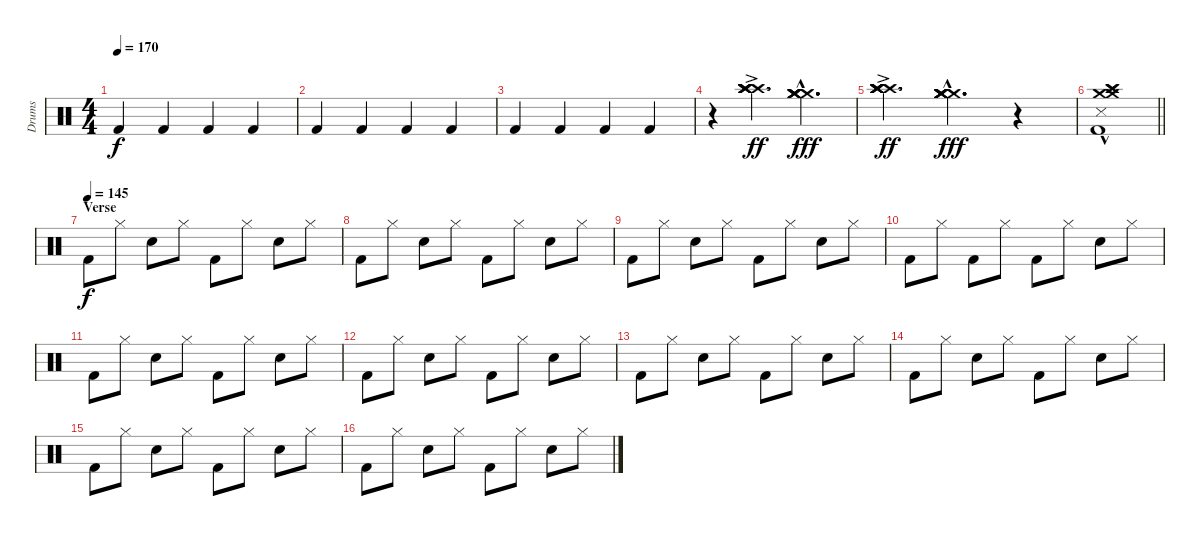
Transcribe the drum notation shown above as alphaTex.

\track ("Drums" "Drums") {instrument percussion}
\staff {score}
\articulation defaults
\ts (4 4)
\tempo 170
\clef neutral
\ks c "Kick (hit) 2".4{dy f} "Kick (hit) 2".4 "Kick (hit) 2".4 "Kick (hit) 2".4
|
"Kick (hit) 2".4 "Kick (hit) 2".4 "Kick (hit) 2".4 "Kick (hit) 2".4 |
"Kick (hit) 2".4 "Kick (hit) 2".4 "Kick (hit) 2".4 "Kick (hit) 2".4 |
r.4 ("Crash high (hit)"{ac} "Crash high (hit)"{ac} "Crash high (hit)"{ac} "Crash high (hit)"{ac} "Crash high (hit)"{ac} "Crash high (hit)"{ac}).4{d dy ff} ("Crash medium (hit)"{hac} "Crash medium (hit)"{hac} "Crash medium (hit)"{hac} "Crash medium (hit)"{hac} "Crash medium (hit)"{hac} "Crash medium (hit)"{hac}).4{d dy fff} |
("Crash high (hit)"{ac} "Crash high (hit)"{ac} "Crash high (hit)"{ac} "Crash high (hit)"{ac} "Crash high (hit)"{ac} "Crash high (hit)"{ac}).4{d dy ff} ("Crash medium (hit)"{hac} "Crash medium (hit)"{hac} "Crash medium (hit)"{hac} "Crash medium (hit)"{hac} "Crash medium (hit)"{hac} "Crash medium (hit)"{hac}).4{d dy fff} r.4 |
\barLineRight lightlight
("Crash high (hit)"{hac} "Crash medium (hit)"{hac} "Kick (hit) 2"{hac} "Crash high (hit)"{hac} "Crash medium (hit)"{hac} "Snare (side stick) 3"{hac}).1 |
\section ("" "Verse")
\tempo (145)
"Kick (hit) 2".8{dy f} "Hi-Hat (closed)".8 "Electric Snare (hit)".8 "Hi-Hat (closed)".8 "Kick (hit) 2".8 "Hi-Hat (closed)".8 "Electric Snare (hit)".8 "Hi-Hat (closed)".8 |
"Kick (hit) 2".8 "Hi-Hat (closed)".8 "Electric Snare (hit)".8 "Hi-Hat (closed)".8 "Kick (hit) 2".8 "Hi-Hat (closed)".8 "Electric Snare (hit)".8 "Hi-Hat (closed)".8 |
"Kick (hit) 2".8 "Hi-Hat (closed)".8 "Electric Snare (hit)".8 "Hi-Hat (closed)".8 "Kick (hit) 2".8 "Hi-Hat (closed)".8 "Electric Snare (hit)".8 "Hi-Hat (closed)".8 |
"Kick (hit) 2".8 "Hi-Hat (closed)".8 "Kick (hit) 2".8 "Hi-Hat (closed)".8 "Kick (hit) 2".8 "Hi-Hat (closed)".8 "Electric Snare (hit)".8 "Hi-Hat (closed)".8 |
"Kick (hit) 2".8 "Hi-Hat (closed)".8 "Electric Snare (hit)".8 "Hi-Hat (closed)".8 "Kick (hit) 2".8 "Hi-Hat (closed)".8 "Electric Snare (hit)".8 "Hi-Hat (closed)".8 |
"Kick (hit) 2".8 "Hi-Hat (closed)".8 "Electric Snare (hit)".8 "Hi-Hat (closed)".8 "Kick (hit) 2".8 "Hi-Hat (closed)".8 "Electric Snare (hit)".8 "Hi-Hat (closed)".8 |
"Kick (hit) 2".8 "Hi-Hat (closed)".8 "Electric Snare (hit)".8 "Hi-Hat (closed)".8 "Kick (hit) 2".8 "Hi-Hat (closed)".8 "Electric Snare (hit)".8 "Hi-Hat (closed)".8 |
"Kick (hit) 2".8 "Hi-Hat (closed)".8 "Electric Snare (hit)".8 "Hi-Hat (closed)".8 "Kick (hit) 2".8 "Hi-Hat (closed)".8 "Electric Snare (hit)".8 "Hi-Hat (closed)".8 |
"Kick (hit) 2".8 "Hi-Hat (closed)".8 "Electric Snare (hit)".8 "Hi-Hat (closed)".8 "Kick (hit) 2".8 "Hi-Hat (closed)".8 "Electric Snare (hit)".8 "Hi-Hat (closed)".8 |
"Kick (hit) 2".8 "Hi-Hat (closed)".8 "Electric Snare (hit)".8 "Hi-Hat (closed)".8 "Kick (hit) 2".8 "Hi-Hat (closed)".8 "Electric Snare (hit)".8 "Hi-Hat (closed)".8
